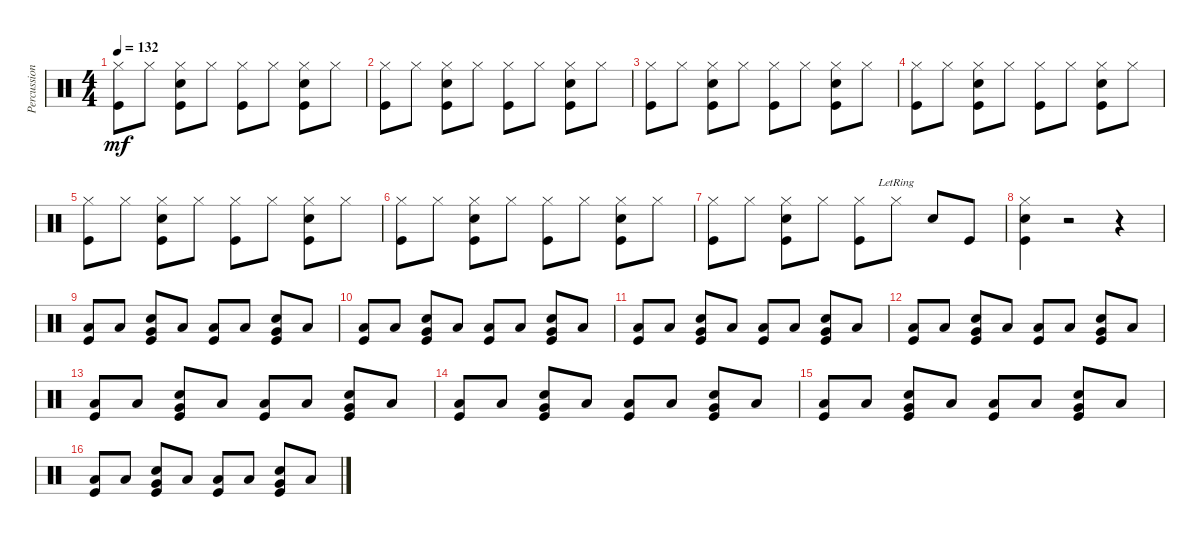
\track ("Percussions" "Percussion") {instrument percussion}
\staff {score}
\articulation defaults
\ts (4 4)
\tempo 132
\clef neutral
\ks c
("Hi-Hat (closed)" "Kick (hit)").8{dy mf} "Hi-Hat (closed)".8 ("Hi-Hat (closed)" "Snare (hit) 2" "Kick (hit)").8 "Hi-Hat (closed)".8 ("Hi-Hat (closed)" "Kick (hit)").8 "Hi-Hat (closed)".8 ("Hi-Hat (closed)" "Snare (hit) 2" "Kick (hit)").8 "Hi-Hat (closed)".8 |
("Hi-Hat (closed)" "Kick (hit)").8 "Hi-Hat (closed)".8 ("Hi-Hat (closed)" "Snare (hit) 2" "Kick (hit)").8 "Hi-Hat (closed)".8 ("Hi-Hat (closed)" "Kick (hit)").8 "Hi-Hat (closed)".8 ("Hi-Hat (closed)" "Snare (hit) 2" "Kick (hit)").8 "Hi-Hat (closed)".8 |
("Hi-Hat (closed)" "Kick (hit)").8 "Hi-Hat (closed)".8 ("Hi-Hat (closed)" "Snare (hit) 2" "Kick (hit)").8 "Hi-Hat (closed)".8 ("Hi-Hat (closed)" "Kick (hit)").8 "Hi-Hat (closed)".8 ("Hi-Hat (closed)" "Snare (hit) 2" "Kick (hit)").8 "Hi-Hat (closed)".8 |
("Hi-Hat (closed)" "Kick (hit)").8 "Hi-Hat (closed)".8 ("Hi-Hat (closed)" "Snare (hit) 2" "Kick (hit)").8 "Hi-Hat (closed)".8 ("Hi-Hat (closed)" "Kick (hit)").8 "Hi-Hat (closed)".8 ("Hi-Hat (closed)" "Snare (hit) 2" "Kick (hit)").8 "Hi-Hat (closed)".8 |
("Hi-Hat (closed)" "Kick (hit)").8 "Hi-Hat (closed)".8 ("Hi-Hat (closed)" "Snare (hit) 2" "Kick (hit)").8 "Hi-Hat (closed)".8 ("Hi-Hat (closed)" "Kick (hit)").8 "Hi-Hat (closed)".8 ("Hi-Hat (closed)" "Snare (hit) 2" "Kick (hit)").8 "Hi-Hat (closed)".8 |
("Hi-Hat (closed)" "Kick (hit)").8 "Hi-Hat (closed)".8 ("Hi-Hat (closed)" "Snare (hit) 2" "Kick (hit)").8 "Hi-Hat (closed)".8 ("Hi-Hat (closed)" "Kick (hit)").8 "Hi-Hat (closed)".8 ("Hi-Hat (closed)" "Snare (hit) 2" "Kick (hit)").8 "Hi-Hat (closed)".8 |
("Hi-Hat (closed)" "Kick (hit)").8 "Hi-Hat (closed)".8 ("Hi-Hat (closed)" "Snare (hit) 2" "Kick (hit)").8 "Hi-Hat (closed)".8 ("Hi-Hat (closed)" "Kick (hit)").8 "Hi-Hat (closed)"{lr}.8 "Snare (hit) 2".8 "Kick (hit)".8 |
("Hi-Hat (closed)" "Snare (hit) 2" "Kick (hit)").4 r.2 r.4 |
("Low Floor Tom (hit)" "Kick (hit)").8 "Low Floor Tom (hit)".8 ("Very Low Tom (hit)" "Snare (hit) 2" "Kick (hit)").8 "Low Floor Tom (hit)".8 ("Low Floor Tom (hit)" "Kick (hit)").8 "Low Floor Tom (hit)".8 ("Very Low Tom (hit)" "Snare (hit) 2" "Kick (hit)").8 "Low Floor Tom (hit)".8 |
("Low Floor Tom (hit)" "Kick (hit)").8 "Low Floor Tom (hit)".8 ("Very Low Tom (hit)" "Snare (hit) 2" "Kick (hit)").8 "Low Floor Tom (hit)".8 ("Low Floor Tom (hit)" "Kick (hit)").8 "Low Floor Tom (hit)".8 ("Very Low Tom (hit)" "Snare (hit) 2" "Kick (hit)").8 "Low Floor Tom (hit)".8 |
("Low Floor Tom (hit)" "Kick (hit)").8 "Low Floor Tom (hit)".8 ("Very Low Tom (hit)" "Snare (hit) 2" "Kick (hit)").8 "Low Floor Tom (hit)".8 ("Low Floor Tom (hit)" "Kick (hit)").8 "Low Floor Tom (hit)".8 ("Very Low Tom (hit)" "Snare (hit) 2" "Kick (hit)").8 "Low Floor Tom (hit)".8 |
("Low Floor Tom (hit)" "Kick (hit)").8 "Low Floor Tom (hit)".8 ("Very Low Tom (hit)" "Snare (hit) 2" "Kick (hit)").8 "Low Floor Tom (hit)".8 ("Low Floor Tom (hit)" "Kick (hit)").8 "Low Floor Tom (hit)".8 ("Very Low Tom (hit)" "Snare (hit) 2" "Kick (hit)").8 "Low Floor Tom (hit)".8 |
("Low Floor Tom (hit)" "Kick (hit)").8 "Low Floor Tom (hit)".8 ("Very Low Tom (hit)" "Snare (hit) 2" "Kick (hit)").8 "Low Floor Tom (hit)".8 ("Low Floor Tom (hit)" "Kick (hit)").8 "Low Floor Tom (hit)".8 ("Very Low Tom (hit)" "Snare (hit) 2" "Kick (hit)").8 "Low Floor Tom (hit)".8 |
("Low Floor Tom (hit)" "Kick (hit)").8 "Low Floor Tom (hit)".8 ("Very Low Tom (hit)" "Snare (hit) 2" "Kick (hit)").8 "Low Floor Tom (hit)".8 ("Low Floor Tom (hit)" "Kick (hit)").8 "Low Floor Tom (hit)".8 ("Very Low Tom (hit)" "Snare (hit) 2" "Kick (hit)").8 "Low Floor Tom (hit)".8 |
("Low Floor Tom (hit)" "Kick (hit)").8 "Low Floor Tom (hit)".8 ("Very Low Tom (hit)" "Snare (hit) 2" "Kick (hit)").8 "Low Floor Tom (hit)".8 ("Low Floor Tom (hit)" "Kick (hit)").8 "Low Floor Tom (hit)".8 ("Very Low Tom (hit)" "Snare (hit) 2" "Kick (hit)").8 "Low Floor Tom (hit)".8 |
("Low Floor Tom (hit)" "Kick (hit)").8 "Low Floor Tom (hit)".8 ("Very Low Tom (hit)" "Snare (hit) 2" "Kick (hit)").8 "Low Floor Tom (hit)".8 ("Low Floor Tom (hit)" "Kick (hit)").8 "Low Floor Tom (hit)".8 ("Very Low Tom (hit)" "Snare (hit) 2" "Kick (hit)").8 "Low Floor Tom (hit)".8
